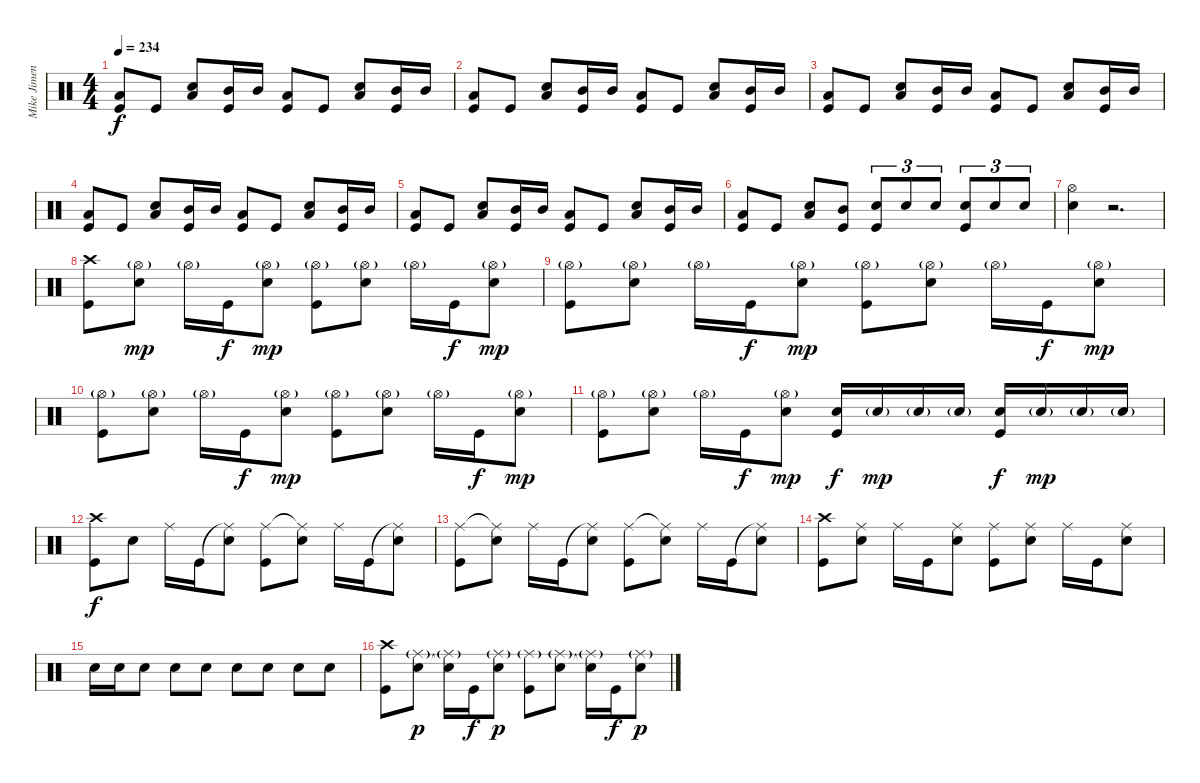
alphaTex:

\track ("Mike Jimenez" "Mike Jimen") {instrument percussion}
\staff {score}
\articulation defaults
\ts (4 4)
\tempo 234
\clef neutral
\ks c
("Low Tom (hit)" "Kick (hit)").8{dy f} "Kick (hit)".8 ("Electric Snare (hit)" "Low Tom (hit)").8 ("Mid Tom (hit)" "Kick (hit)").16 "Mid Tom (hit)".16 ("Low Tom (hit)" "Kick (hit)").8 "Kick (hit)".8 ("Low Tom (hit)" "Electric Snare (hit)").8 ("Mid Tom (hit)" "Kick (hit)").16 "Mid Tom (hit)".16 |
("Low Tom (hit)" "Kick (hit)").8 "Kick (hit)".8 ("Electric Snare (hit)" "Low Tom (hit)").8 ("Mid Tom (hit)" "Kick (hit)").16 "Mid Tom (hit)".16 ("Low Tom (hit)" "Kick (hit)").8 "Kick (hit)".8 ("Low Tom (hit)" "Electric Snare (hit)").8 ("Mid Tom (hit)" "Kick (hit)").16 "Mid Tom (hit)".16 |
("Low Tom (hit)" "Kick (hit)").8 "Kick (hit)".8 ("Electric Snare (hit)" "Low Tom (hit)").8 ("Mid Tom (hit)" "Kick (hit)").16 "Mid Tom (hit)".16 ("Low Tom (hit)" "Kick (hit)").8 "Kick (hit)".8 ("Low Tom (hit)" "Electric Snare (hit)").8 ("Mid Tom (hit)" "Kick (hit)").16 "Mid Tom (hit)".16 |
("Low Tom (hit)" "Kick (hit)").8 "Kick (hit)".8 ("Electric Snare (hit)" "Low Tom (hit)").8 ("Mid Tom (hit)" "Kick (hit)").16 "Mid Tom (hit)".16 ("Low Tom (hit)" "Kick (hit)").8 "Kick (hit)".8 ("Low Tom (hit)" "Electric Snare (hit)").8 ("Mid Tom (hit)" "Kick (hit)").16 "Mid Tom (hit)".16 |
("Low Tom (hit)" "Kick (hit)").8 "Kick (hit)".8 ("Electric Snare (hit)" "Low Tom (hit)").8 ("Mid Tom (hit)" "Kick (hit)").16 "Mid Tom (hit)".16 ("Low Tom (hit)" "Kick (hit)").8 "Kick (hit)".8 ("Low Tom (hit)" "Electric Snare (hit)").8 ("Mid Tom (hit)" "Kick (hit)").16 "Mid Tom (hit)".16 |
("Low Tom (hit)" "Kick (hit)").8 "Kick (hit)".8 ("Electric Snare (hit)" "Low Tom (hit)").8 ("Mid Tom (hit)" "Kick (hit)").8 ("Electric Snare (hit)" "Kick (hit)").8{tu (3 2)} "Electric Snare (hit)".8{tu (3 2)} "Electric Snare (hit)".8{tu (3 2)} ("Electric Snare (hit)" "Kick (hit)").8{tu (3 2)} "Electric Snare (hit)".8{tu (3 2)} "Electric Snare (hit)".8{tu (3 2)} |
("Hi-Hat (open)" "Electric Snare (hit)").4 r.2{d} |
("Crash high (hit)" "Kick (hit)").8 ("Hi-Hat (open)"{g} "Electric Snare (hit)").8{dy mp} "Hi-Hat (open)"{g}.16 "Kick (hit)".16{dy f} ("Hi-Hat (open)"{g} "Electric Snare (hit)").8{dy mp} ("Hi-Hat (open)"{g} "Kick (hit)").8 ("Hi-Hat (open)"{g} "Electric Snare (hit)").8 "Hi-Hat (open)"{g}.16 "Kick (hit)".16{dy f} ("Hi-Hat (open)"{g} "Electric Snare (hit)").8{dy mp} |
("Hi-Hat (open)"{g} "Kick (hit)").8 ("Hi-Hat (open)"{g} "Electric Snare (hit)").8 "Hi-Hat (open)"{g}.16 "Kick (hit)".16{dy f} ("Hi-Hat (open)"{g} "Electric Snare (hit)").8{dy mp} ("Hi-Hat (open)"{g} "Kick (hit)").8 ("Hi-Hat (open)"{g} "Electric Snare (hit)").8 "Hi-Hat (open)"{g}.16 "Kick (hit)".16{dy f} ("Hi-Hat (open)"{g} "Electric Snare (hit)").8{dy mp} |
("Hi-Hat (open)"{g} "Kick (hit)").8 ("Hi-Hat (open)"{g} "Electric Snare (hit)").8 "Hi-Hat (open)"{g}.16 "Kick (hit)".16{dy f} ("Hi-Hat (open)"{g} "Electric Snare (hit)").8{dy mp} ("Hi-Hat (open)"{g} "Kick (hit)").8 ("Hi-Hat (open)"{g} "Electric Snare (hit)").8 "Hi-Hat (open)"{g}.16 "Kick (hit)".16{dy f} ("Hi-Hat (open)"{g} "Electric Snare (hit)").8{dy mp} |
("Hi-Hat (open)"{g} "Kick (hit)").8 ("Hi-Hat (open)"{g} "Electric Snare (hit)").8 "Hi-Hat (open)"{g}.16 "Kick (hit)".16{dy f} ("Hi-Hat (open)"{g} "Electric Snare (hit)").8{dy mp} ("Electric Snare (hit)" "Kick (hit)").16{dy f} "Electric Snare (hit)"{g}.16{dy mp} "Electric Snare (hit)"{g}.16 "Electric Snare (hit)"{g}.16 ("Electric Snare (hit)" "Kick (hit)").16{dy f} "Electric Snare (hit)"{g}.16{dy mp} "Electric Snare (hit)"{g}.16 "Electric Snare (hit)"{g}.16 |
("Crash high (hit)" "Kick (hit)").8{dy f} "Electric Snare (hit)".8 "Ride (middle)".16 "Kick (hit)".16 ("Ride (middle)"{t} "Electric Snare (hit)").8 ("Ride (middle)" "Kick (hit)").8 ("Ride (middle)"{t} "Electric Snare (hit)").8 "Ride (middle)".16 "Kick (hit)".16 ("Ride (middle)"{t} "Electric Snare (hit)").8 |
("Ride (middle)" "Kick (hit)").8 ("Ride (middle)"{t} "Electric Snare (hit)").8 "Ride (middle)".16 "Kick (hit)".16 ("Ride (middle)"{t} "Electric Snare (hit)").8 ("Ride (middle)" "Kick (hit)").8 ("Ride (middle)"{t} "Electric Snare (hit)").8 "Ride (middle)".16 "Kick (hit)".16 ("Ride (middle)"{t} "Electric Snare (hit)").8 |
("Crash high (hit)" "Kick (hit)").8 ("Ride (middle)" "Electric Snare (hit)").8 "Ride (middle)".16 "Kick (hit)".16 ("Ride (middle)" "Electric Snare (hit)").8 ("Ride (middle)" "Kick (hit)").8 ("Ride (middle)" "Electric Snare (hit)").8 "Ride (middle)".16 "Kick (hit)".16 ("Ride (middle)" "Electric Snare (hit)").8 |
"Electric Snare (hit)".16 "Electric Snare (hit)".16 "Electric Snare (hit)".8 "Electric Snare (hit)".8 "Electric Snare (hit)".8 "Electric Snare (hit)".8 "Electric Snare (hit)".8 "Electric Snare (hit)".8 "Electric Snare (hit)".8 |
("Crash high (hit)" "Kick (hit)").8 ("Ride (middle)"{g} "Electric Snare (hit)").8{dy p} ("Ride (middle)"{g} "Snare (hit)"{t}).16 "Kick (hit)".16{dy f} ("Ride (middle)"{g} "Electric Snare (hit)").8{dy p} ("Ride (middle)"{g} "Kick (hit)").8 ("Ride (middle)"{g} "Electric Snare (hit)").8 ("Ride (middle)"{g} "Snare (hit)"{t}).16 "Kick (hit)".16{dy f} ("Ride (middle)"{g} "Electric Snare (hit)").8{dy p}
